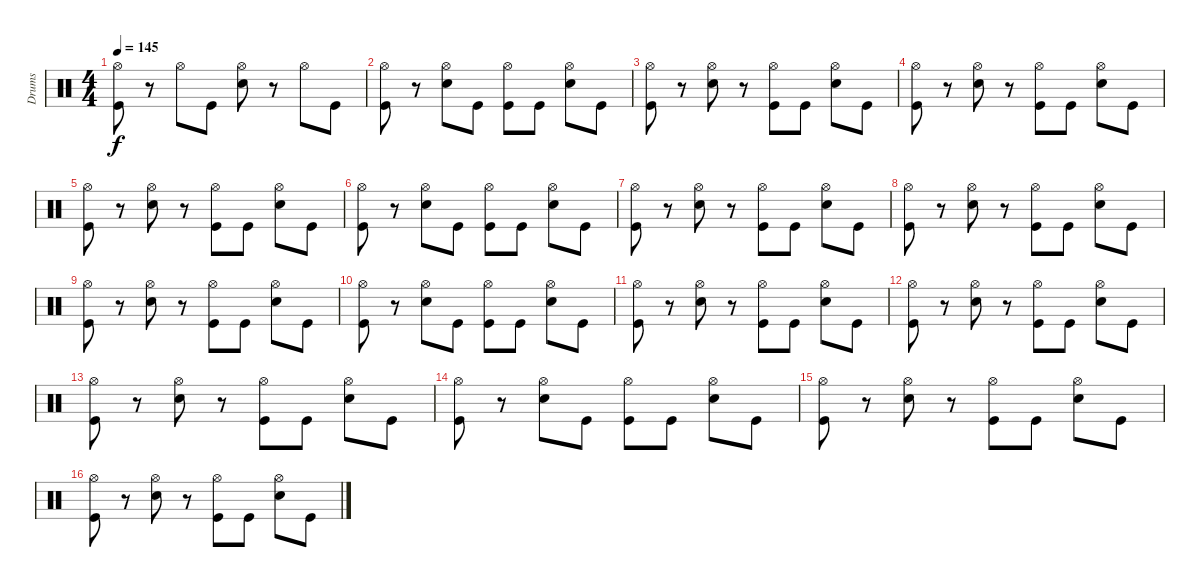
\track ("Drums" "Drums") {instrument percussion}
\staff {score}
\articulation defaults
\ts (4 4)
\tempo 145
\clef neutral
\ks c
("Hi-Hat (open)" "Kick (hit)").8{dy f} r.8 "Hi-Hat (open)".8 "Kick (hit)".8 ("Hi-Hat (open)" "Snare (hit) 2").8 r.8 "Hi-Hat (open)".8 "Kick (hit)".8 |
("Hi-Hat (open)" "Kick (hit)").8 r.8 ("Hi-Hat (open)" "Snare (hit) 2").8 "Kick (hit)".8 ("Hi-Hat (open)" "Kick (hit)").8 "Kick (hit)".8 ("Hi-Hat (open)" "Snare (hit) 2").8 "Kick (hit)".8 |
("Hi-Hat (open)" "Kick (hit)").8 r.8 ("Hi-Hat (open)" "Snare (hit) 2").8 r.8 ("Hi-Hat (open)" "Kick (hit)").8 "Kick (hit)".8 ("Hi-Hat (open)" "Snare (hit) 2").8 "Kick (hit)".8 |
("Hi-Hat (open)" "Kick (hit)").8 r.8 ("Hi-Hat (open)" "Snare (hit) 2").8 r.8 ("Hi-Hat (open)" "Kick (hit)").8 "Kick (hit)".8 ("Hi-Hat (open)" "Snare (hit) 2").8 "Kick (hit)".8 |
("Hi-Hat (open)" "Kick (hit)").8 r.8 ("Hi-Hat (open)" "Snare (hit) 2").8 r.8 ("Hi-Hat (open)" "Kick (hit)").8 "Kick (hit)".8 ("Hi-Hat (open)" "Snare (hit) 2").8 "Kick (hit)".8 |
("Hi-Hat (open)" "Kick (hit)").8 r.8 ("Hi-Hat (open)" "Snare (hit) 2").8 "Kick (hit)".8 ("Hi-Hat (open)" "Kick (hit)").8 "Kick (hit)".8 ("Hi-Hat (open)" "Snare (hit) 2").8 "Kick (hit)".8 |
("Hi-Hat (open)" "Kick (hit)").8 r.8 ("Hi-Hat (open)" "Snare (hit) 2").8 r.8 ("Hi-Hat (open)" "Kick (hit)").8 "Kick (hit)".8 ("Hi-Hat (open)" "Snare (hit) 2").8 "Kick (hit)".8 |
("Hi-Hat (open)" "Kick (hit)").8 r.8 ("Hi-Hat (open)" "Snare (hit) 2").8 r.8 ("Hi-Hat (open)" "Kick (hit)").8 "Kick (hit)".8 ("Hi-Hat (open)" "Snare (hit) 2").8 "Kick (hit)".8 |
("Hi-Hat (open)" "Kick (hit)").8 r.8 ("Hi-Hat (open)" "Snare (hit) 2").8 r.8 ("Hi-Hat (open)" "Kick (hit)").8 "Kick (hit)".8 ("Hi-Hat (open)" "Snare (hit) 2").8 "Kick (hit)".8 |
("Hi-Hat (open)" "Kick (hit)").8 r.8 ("Hi-Hat (open)" "Snare (hit) 2").8 "Kick (hit)".8 ("Hi-Hat (open)" "Kick (hit)").8 "Kick (hit)".8 ("Hi-Hat (open)" "Snare (hit) 2").8 "Kick (hit)".8 |
("Hi-Hat (open)" "Kick (hit)").8 r.8 ("Hi-Hat (open)" "Snare (hit) 2").8 r.8 ("Hi-Hat (open)" "Kick (hit)").8 "Kick (hit)".8 ("Hi-Hat (open)" "Snare (hit) 2").8 "Kick (hit)".8 |
("Hi-Hat (open)" "Kick (hit)").8 r.8 ("Hi-Hat (open)" "Snare (hit) 2").8 r.8 ("Hi-Hat (open)" "Kick (hit)").8 "Kick (hit)".8 ("Hi-Hat (open)" "Snare (hit) 2").8 "Kick (hit)".8 |
("Hi-Hat (open)" "Kick (hit)").8 r.8 ("Hi-Hat (open)" "Snare (hit) 2").8 r.8 ("Hi-Hat (open)" "Kick (hit)").8 "Kick (hit)".8 ("Hi-Hat (open)" "Snare (hit) 2").8 "Kick (hit)".8 |
("Hi-Hat (open)" "Kick (hit)").8 r.8 ("Hi-Hat (open)" "Snare (hit) 2").8 "Kick (hit)".8 ("Hi-Hat (open)" "Kick (hit)").8 "Kick (hit)".8 ("Hi-Hat (open)" "Snare (hit) 2").8 "Kick (hit)".8 |
("Hi-Hat (open)" "Kick (hit)").8 r.8 ("Hi-Hat (open)" "Snare (hit) 2").8 r.8 ("Hi-Hat (open)" "Kick (hit)").8 "Kick (hit)".8 ("Hi-Hat (open)" "Snare (hit) 2").8 "Kick (hit)".8 |
("Hi-Hat (open)" "Kick (hit)").8 r.8 ("Hi-Hat (open)" "Snare (hit) 2").8 r.8 ("Hi-Hat (open)" "Kick (hit)").8 "Kick (hit)".8 ("Hi-Hat (open)" "Snare (hit) 2").8 "Kick (hit)".8
